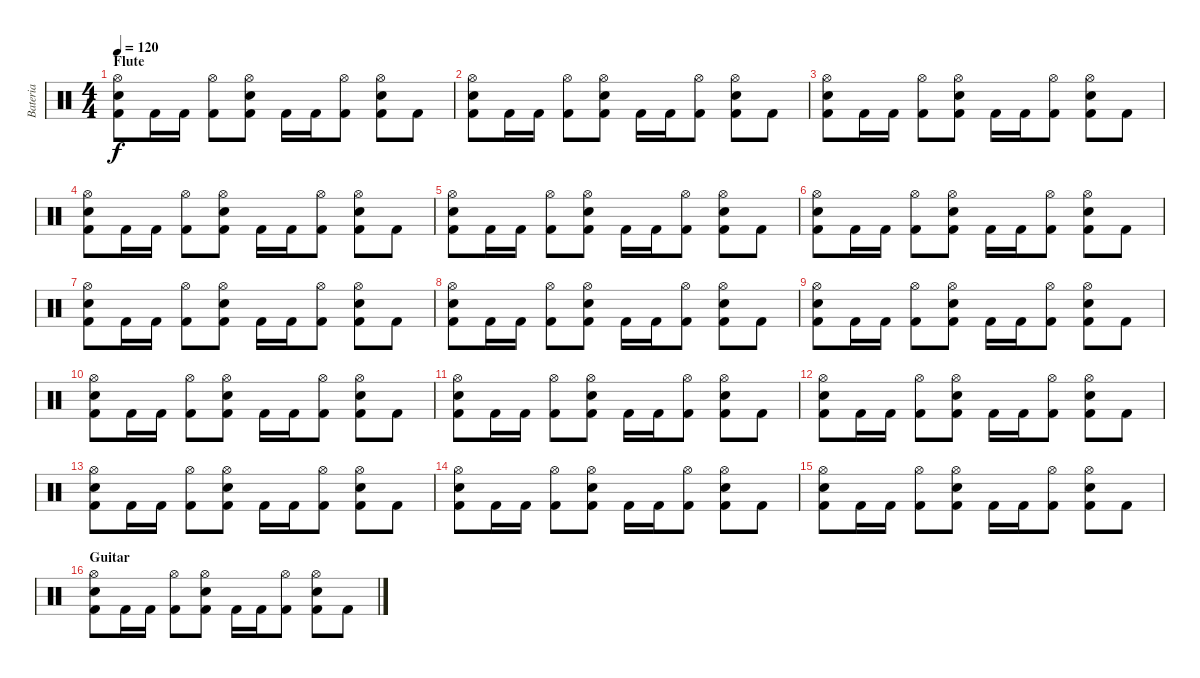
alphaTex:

\track ("Bateria" "Bateria") {instrument percussion}
\staff {score}
\articulation defaults
\ts (4 4)
\section ("" "Flute")
\tempo 120
\clef neutral
\ks c
("Hi-Hat (open)" "Snare (hit) 2" "Kick (hit) 2").8{dy f} "Kick (hit) 2".16 "Kick (hit) 2".16 ("Hi-Hat (open)" "Kick (hit) 2").8 ("Hi-Hat (open)" "Snare (hit) 2" "Kick (hit) 2").8 "Kick (hit) 2".16 "Kick (hit) 2".16 ("Hi-Hat (open)" "Kick (hit) 2").8 ("Hi-Hat (open)" "Snare (hit) 2" "Kick (hit) 2").8 "Kick (hit) 2".8 |
("Hi-Hat (open)" "Snare (hit) 2" "Kick (hit) 2").8 "Kick (hit) 2".16 "Kick (hit) 2".16 ("Hi-Hat (open)" "Kick (hit) 2").8 ("Hi-Hat (open)" "Snare (hit) 2" "Kick (hit) 2").8 "Kick (hit) 2".16 "Kick (hit) 2".16 ("Hi-Hat (open)" "Kick (hit) 2").8 ("Hi-Hat (open)" "Snare (hit) 2" "Kick (hit) 2").8 "Kick (hit) 2".8 |
("Hi-Hat (open)" "Snare (hit) 2" "Kick (hit) 2").8 "Kick (hit) 2".16 "Kick (hit) 2".16 ("Hi-Hat (open)" "Kick (hit) 2").8 ("Hi-Hat (open)" "Snare (hit) 2" "Kick (hit) 2").8 "Kick (hit) 2".16 "Kick (hit) 2".16 ("Hi-Hat (open)" "Kick (hit) 2").8 ("Hi-Hat (open)" "Snare (hit) 2" "Kick (hit) 2").8 "Kick (hit) 2".8 |
("Hi-Hat (open)" "Snare (hit) 2" "Kick (hit) 2").8 "Kick (hit) 2".16 "Kick (hit) 2".16 ("Hi-Hat (open)" "Kick (hit) 2").8 ("Hi-Hat (open)" "Snare (hit) 2" "Kick (hit) 2").8 "Kick (hit) 2".16 "Kick (hit) 2".16 ("Hi-Hat (open)" "Kick (hit) 2").8 ("Hi-Hat (open)" "Snare (hit) 2" "Kick (hit) 2").8 "Kick (hit) 2".8 |
("Hi-Hat (open)" "Snare (hit) 2" "Kick (hit) 2").8 "Kick (hit) 2".16 "Kick (hit) 2".16 ("Hi-Hat (open)" "Kick (hit) 2").8 ("Hi-Hat (open)" "Snare (hit) 2" "Kick (hit) 2").8 "Kick (hit) 2".16 "Kick (hit) 2".16 ("Hi-Hat (open)" "Kick (hit) 2").8 ("Hi-Hat (open)" "Snare (hit) 2" "Kick (hit) 2").8 "Kick (hit) 2".8 |
("Hi-Hat (open)" "Snare (hit) 2" "Kick (hit) 2").8 "Kick (hit) 2".16 "Kick (hit) 2".16 ("Hi-Hat (open)" "Kick (hit) 2").8 ("Hi-Hat (open)" "Snare (hit) 2" "Kick (hit) 2").8 "Kick (hit) 2".16 "Kick (hit) 2".16 ("Hi-Hat (open)" "Kick (hit) 2").8 ("Hi-Hat (open)" "Snare (hit) 2" "Kick (hit) 2").8 "Kick (hit) 2".8 |
("Hi-Hat (open)" "Snare (hit) 2" "Kick (hit) 2").8 "Kick (hit) 2".16 "Kick (hit) 2".16 ("Hi-Hat (open)" "Kick (hit) 2").8 ("Hi-Hat (open)" "Snare (hit) 2" "Kick (hit) 2").8 "Kick (hit) 2".16 "Kick (hit) 2".16 ("Hi-Hat (open)" "Kick (hit) 2").8 ("Hi-Hat (open)" "Snare (hit) 2" "Kick (hit) 2").8 "Kick (hit) 2".8 |
("Hi-Hat (open)" "Snare (hit) 2" "Kick (hit) 2").8 "Kick (hit) 2".16 "Kick (hit) 2".16 ("Hi-Hat (open)" "Kick (hit) 2").8 ("Hi-Hat (open)" "Snare (hit) 2" "Kick (hit) 2").8 "Kick (hit) 2".16 "Kick (hit) 2".16 ("Hi-Hat (open)" "Kick (hit) 2").8 ("Hi-Hat (open)" "Snare (hit) 2" "Kick (hit) 2").8 "Kick (hit) 2".8 |
("Hi-Hat (open)" "Snare (hit) 2" "Kick (hit) 2").8 "Kick (hit) 2".16 "Kick (hit) 2".16 ("Hi-Hat (open)" "Kick (hit) 2").8 ("Hi-Hat (open)" "Snare (hit) 2" "Kick (hit) 2").8 "Kick (hit) 2".16 "Kick (hit) 2".16 ("Hi-Hat (open)" "Kick (hit) 2").8 ("Hi-Hat (open)" "Snare (hit) 2" "Kick (hit) 2").8 "Kick (hit) 2".8 |
("Hi-Hat (open)" "Snare (hit) 2" "Kick (hit) 2").8 "Kick (hit) 2".16 "Kick (hit) 2".16 ("Hi-Hat (open)" "Kick (hit) 2").8 ("Hi-Hat (open)" "Snare (hit) 2" "Kick (hit) 2").8 "Kick (hit) 2".16 "Kick (hit) 2".16 ("Hi-Hat (open)" "Kick (hit) 2").8 ("Hi-Hat (open)" "Snare (hit) 2" "Kick (hit) 2").8 "Kick (hit) 2".8 |
("Hi-Hat (open)" "Snare (hit) 2" "Kick (hit) 2").8 "Kick (hit) 2".16 "Kick (hit) 2".16 ("Hi-Hat (open)" "Kick (hit) 2").8 ("Hi-Hat (open)" "Snare (hit) 2" "Kick (hit) 2").8 "Kick (hit) 2".16 "Kick (hit) 2".16 ("Hi-Hat (open)" "Kick (hit) 2").8 ("Hi-Hat (open)" "Snare (hit) 2" "Kick (hit) 2").8 "Kick (hit) 2".8 |
("Hi-Hat (open)" "Snare (hit) 2" "Kick (hit) 2").8 "Kick (hit) 2".16 "Kick (hit) 2".16 ("Hi-Hat (open)" "Kick (hit) 2").8 ("Hi-Hat (open)" "Snare (hit) 2" "Kick (hit) 2").8 "Kick (hit) 2".16 "Kick (hit) 2".16 ("Hi-Hat (open)" "Kick (hit) 2").8 ("Hi-Hat (open)" "Snare (hit) 2" "Kick (hit) 2").8 "Kick (hit) 2".8 |
("Hi-Hat (open)" "Snare (hit) 2" "Kick (hit) 2").8 "Kick (hit) 2".16 "Kick (hit) 2".16 ("Hi-Hat (open)" "Kick (hit) 2").8 ("Hi-Hat (open)" "Snare (hit) 2" "Kick (hit) 2").8 "Kick (hit) 2".16 "Kick (hit) 2".16 ("Hi-Hat (open)" "Kick (hit) 2").8 ("Hi-Hat (open)" "Snare (hit) 2" "Kick (hit) 2").8 "Kick (hit) 2".8 |
("Hi-Hat (open)" "Snare (hit) 2" "Kick (hit) 2").8 "Kick (hit) 2".16 "Kick (hit) 2".16 ("Hi-Hat (open)" "Kick (hit) 2").8 ("Hi-Hat (open)" "Snare (hit) 2" "Kick (hit) 2").8 "Kick (hit) 2".16 "Kick (hit) 2".16 ("Hi-Hat (open)" "Kick (hit) 2").8 ("Hi-Hat (open)" "Snare (hit) 2" "Kick (hit) 2").8 "Kick (hit) 2".8 |
("Hi-Hat (open)" "Snare (hit) 2" "Kick (hit) 2").8 "Kick (hit) 2".16 "Kick (hit) 2".16 ("Hi-Hat (open)" "Kick (hit) 2").8 ("Hi-Hat (open)" "Snare (hit) 2" "Kick (hit) 2").8 "Kick (hit) 2".16 "Kick (hit) 2".16 ("Hi-Hat (open)" "Kick (hit) 2").8 ("Hi-Hat (open)" "Snare (hit) 2" "Kick (hit) 2").8 "Kick (hit) 2".8 |
\section ("" "Guitar")
("Hi-Hat (open)" "Snare (hit) 2" "Kick (hit) 2").8 "Kick (hit) 2".16 "Kick (hit) 2".16 ("Hi-Hat (open)" "Kick (hit) 2").8 ("Hi-Hat (open)" "Snare (hit) 2" "Kick (hit) 2").8 "Kick (hit) 2".16 "Kick (hit) 2".16 ("Hi-Hat (open)" "Kick (hit) 2").8 ("Hi-Hat (open)" "Snare (hit) 2" "Kick (hit) 2").8 "Kick (hit) 2".8
